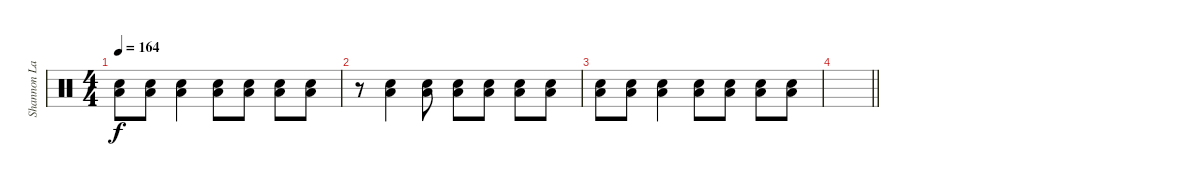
\track ("Shannon Larkin" "Shannon La") {instrument percussion}
\staff {score}
\articulation defaults
\ts (4 4)
\tempo 164
\clef neutral
\ks c
("Electric Snare (hit)" "Low Tom (hit)").8{dy f} ("Electric Snare (hit)" "Low Tom (hit)").8 ("Electric Snare (hit)" "Low Tom (hit)").4 ("Electric Snare (hit)" "Low Tom (hit)").8 ("Electric Snare (hit)" "Low Tom (hit)").8 ("Electric Snare (hit)" "Low Tom (hit)").8 ("Electric Snare (hit)" "Low Tom (hit)").8 |
r.8 ("Electric Snare (hit)" "Low Tom (hit)").4 ("Electric Snare (hit)" "Low Tom (hit)").8 ("Electric Snare (hit)" "Low Tom (hit)").8 ("Electric Snare (hit)" "Low Tom (hit)").8 ("Electric Snare (hit)" "Low Tom (hit)").8 ("Electric Snare (hit)" "Low Tom (hit)").8 |
("Electric Snare (hit)" "Low Tom (hit)").8 ("Electric Snare (hit)" "Low Tom (hit)").8 ("Electric Snare (hit)" "Low Tom (hit)").4 ("Electric Snare (hit)" "Low Tom (hit)").8 ("Electric Snare (hit)" "Low Tom (hit)").8 ("Electric Snare (hit)" "Low Tom (hit)").8 ("Electric Snare (hit)" "Low Tom (hit)").8 |
\barLineRight lightlight
